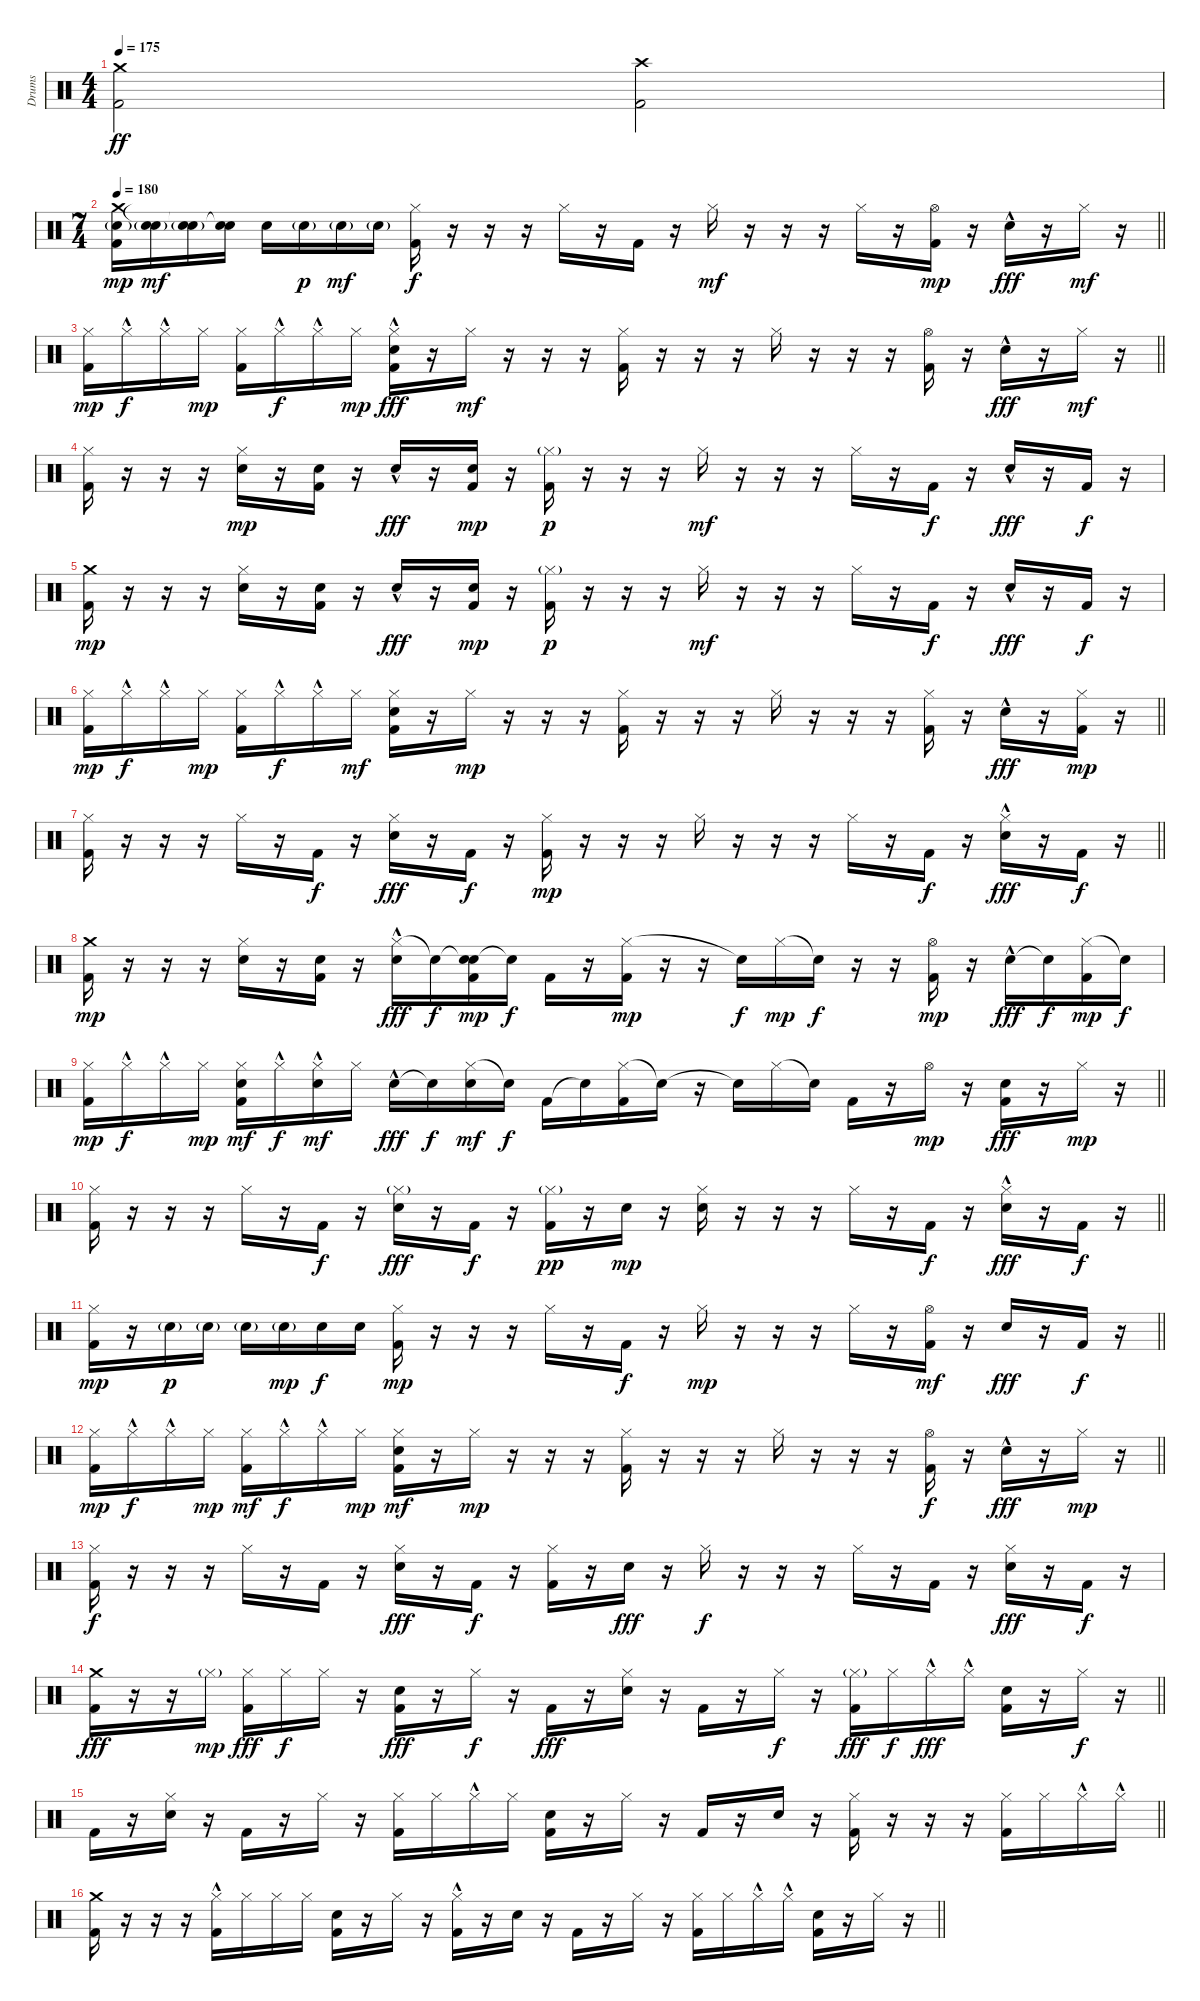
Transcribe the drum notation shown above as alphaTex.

\track ("Drums" "Drums") {instrument percussion}
\staff {score}
\articulation defaults
\ts (4 4)
\tempo 175
\clef neutral
\ks c
("Crash medium (hit)" "Kick (hit) 2").2{dy ff} ("Crash high (hit)" "Kick (hit) 2").2 |
\ts (7 4)
\tempo 180
\barLineRight lightlight
("Crash medium (hit)" "Electric Snare (hit)"{g} "Kick (hit) 2").16{dy mp} ("Snare (hit)"{t} "Electric Snare (hit)"{g}).16{dy mf} ("Snare (hit)"{t} "Electric Snare (hit)"{g}).16 ("Snare (hit)"{t} "Electric Snare (hit)").16 "Electric Snare (hit)".16 "Electric Snare (hit)"{g}.16{dy p} "Electric Snare (hit)"{g}.16{dy mf} "Electric Snare (hit)"{g}.16 ("Hi-Hat (closed)" "Kick (hit) 2").16{dy f} r.16 r.16 r.16 "Hi-Hat (closed)".16 r.16 "Kick (hit) 2".16 r.16 "Hi-Hat (closed)".16{dy mf} r.16 r.16 r.16 "Hi-Hat (closed)".16 r.16 ("Hi-Hat (open)" "Kick (hit) 2").16{dy mp} r.16 "Electric Snare (hit)"{hac}.16{dy fff} r.16 "Hi-Hat (closed)".16{dy mf} r.16 |
\barLineRight lightlight
("Hi-Hat (closed)" "Kick (hit) 2").16{dy mp} "Hi-Hat (closed)"{hac}.16{dy f} "Hi-Hat (closed)"{hac}.16 "Hi-Hat (closed)".16{dy mp} ("Hi-Hat (closed)" "Kick (hit) 2").16 "Hi-Hat (closed)"{hac}.16{dy f} "Hi-Hat (closed)"{hac}.16 "Hi-Hat (closed)".16{dy mp} ("Hi-Hat (closed)" "Electric Snare (hit)"{hac} "Kick (hit) 2").16{dy fff} r.16 "Hi-Hat (closed)".16{dy mf} r.16 r.16 r.16 ("Hi-Hat (closed)" "Kick (hit) 2").16 r.16 r.16 r.16 "Hi-Hat (closed)".16 r.16 r.16 r.16 ("Hi-Hat (open)" "Kick (hit) 2").16 r.16 "Electric Snare (hit)"{hac}.16{dy fff} r.16 "Hi-Hat (closed)".16{dy mf} r.16 |
("Hi-Hat (closed)" "Kick (hit) 2").16 r.16 r.16 r.16 ("Hi-Hat (closed)" "Electric Snare (hit)").16{dy mp} r.16 ("Electric Snare (hit)" "Kick (hit) 2").16 r.16 "Electric Snare (hit)"{hac}.16{dy fff} r.16 ("Electric Snare (hit)" "Kick (hit) 2").16{dy mp} r.16 ("Hi-Hat (closed)"{g} "Kick (hit) 2").16{dy p} r.16 r.16 r.16 "Hi-Hat (closed)".16{dy mf} r.16 r.16 r.16 "Hi-Hat (closed)".16 r.16 "Kick (hit) 2".16{dy f} r.16 "Electric Snare (hit)"{hac}.16{dy fff} r.16 "Kick (hit) 2".16{dy f} r.16 |
("Crash medium (hit)" "Kick (hit) 2").16{dy mp} r.16 r.16 r.16 ("Hi-Hat (closed)" "Electric Snare (hit)").16 r.16 ("Electric Snare (hit)" "Kick (hit) 2").16 r.16 "Electric Snare (hit)"{hac}.16{dy fff} r.16 ("Electric Snare (hit)" "Kick (hit) 2").16{dy mp} r.16 ("Hi-Hat (closed)"{g} "Kick (hit) 2").16{dy p} r.16 r.16 r.16 "Hi-Hat (closed)".16{dy mf} r.16 r.16 r.16 "Hi-Hat (closed)".16 r.16 "Kick (hit) 2".16{dy f} r.16 "Electric Snare (hit)"{hac}.16{dy fff} r.16 "Kick (hit) 2".16{dy f} r.16 |
\barLineRight lightlight
("Hi-Hat (closed)" "Kick (hit) 2").16{dy mp} "Hi-Hat (closed)"{hac}.16{dy f} "Hi-Hat (closed)"{hac}.16 "Hi-Hat (closed)".16{dy mp} ("Hi-Hat (closed)" "Kick (hit) 2").16 "Hi-Hat (closed)"{hac}.16{dy f} "Hi-Hat (closed)"{hac}.16 "Hi-Hat (closed)".16{dy mf} ("Hi-Hat (closed)" "Electric Snare (hit)" "Kick (hit) 2").16 r.16 "Hi-Hat (closed)".16{dy mp} r.16 r.16 r.16 ("Hi-Hat (closed)" "Kick (hit) 2").16 r.16 r.16 r.16 "Hi-Hat (closed)".16 r.16 r.16 r.16 ("Hi-Hat (closed)" "Kick (hit) 2").16 r.16 "Electric Snare (hit)"{hac}.16{dy fff} r.16 ("Hi-Hat (closed)" "Kick (hit) 2").16{dy mp} r.16 |
\barLineRight lightlight
("Hi-Hat (closed)" "Kick (hit) 2").16 r.16 r.16 r.16 "Hi-Hat (closed)".16 r.16 "Kick (hit) 2".16{dy f} r.16 ("Hi-Hat (closed)" "Electric Snare (hit)").16{dy fff} r.16 "Kick (hit) 2".16{dy f} r.16 ("Hi-Hat (closed)" "Kick (hit) 2").16{dy mp} r.16 r.16 r.16 "Hi-Hat (closed)".16 r.16 r.16 r.16 "Hi-Hat (closed)".16 r.16 "Kick (hit) 2".16{dy f} r.16 ("Hi-Hat (closed)" "Electric Snare (hit)"{hac}).16{dy fff} r.16 "Kick (hit) 2".16{dy f} r.16 |
("Crash medium (hit)" "Kick (hit) 2").16{dy mp} r.16 r.16 r.16 ("Hi-Hat (closed)" "Electric Snare (hit)").16 r.16 ("Electric Snare (hit)" "Kick (hit) 2").16 r.16 ("Hi-Hat (closed)" "Electric Snare (hit)"{hac}).16{dy fff} "Snare (hit)"{t}.16{dy f} ("Snare (hit)"{t} "Electric Snare (hit)" "Kick (hit) 2").16{dy mp} "Snare (hit)"{t}.16{dy f} "Kick (hit) 2".16 r.16 ("Hi-Hat (closed)" "Kick (hit) 2").16{dy mp} r.16 r.16 "Snare (hit)"{t}.16{dy f} "Hi-Hat (closed)".16{dy mp} "Snare (hit)"{t}.16{dy f} r.16 r.16 ("Hi-Hat (open)" "Kick (hit) 2").16{dy mp} r.16 "Electric Snare (hit)"{hac}.16{dy fff} "Snare (hit)"{t}.16{dy f} ("Hi-Hat (closed)" "Kick (hit) 2").16{dy mp} "Snare (hit)"{t}.16{dy f} |
\barLineRight lightlight
("Hi-Hat (closed)" "Kick (hit) 2").16{dy mp} "Hi-Hat (closed)"{hac}.16{dy f} "Hi-Hat (closed)"{hac}.16 "Hi-Hat (closed)".16{dy mp} ("Hi-Hat (closed)" "Electric Snare (hit)" "Kick (hit) 2").16{dy mf} "Hi-Hat (closed)"{hac}.16{dy f} ("Hi-Hat (closed)"{hac} "Electric Snare (hit)").16{dy mf} "Hi-Hat (closed)".16 "Electric Snare (hit)"{hac}.16{dy fff} "Snare (hit)"{t}.16{dy f} ("Hi-Hat (closed)" "Electric Snare (hit)").16{dy mf} "Snare (hit)"{t}.16{dy f} "Kick (hit) 2".16 "Snare (hit)"{t}.16 ("Hi-Hat (closed)" "Kick (hit) 2").16 "Snare (hit)"{t}.16 r.16 "Snare (hit)"{t}.16 "Hi-Hat (closed)".16 "Snare (hit)"{t}.16 "Kick (hit) 2".16 r.16 "Hi-Hat (open)".16{dy mp} r.16 ("Electric Snare (hit)" "Kick (hit) 2").16{dy fff} r.16 "Hi-Hat (closed)".16{dy mp} r.16 |
\barLineRight lightlight
("Hi-Hat (closed)" "Kick (hit) 2").16 r.16 r.16 r.16 "Hi-Hat (closed)".16 r.16 "Kick (hit) 2".16{dy f} r.16 ("Hi-Hat (closed)"{g} "Electric Snare (hit)").16{dy fff} r.16 "Kick (hit) 2".16{dy f} r.16 ("Hi-Hat (closed)"{g} "Kick (hit) 2").16{dy pp} r.16 "Electric Snare (hit)".16{dy mp} r.16 ("Hi-Hat (closed)" "Electric Snare (hit)").16 r.16 r.16 r.16 "Hi-Hat (closed)".16 r.16 "Kick (hit) 2".16{dy f} r.16 ("Hi-Hat (closed)" "Electric Snare (hit)"{hac}).16{dy fff} r.16 "Kick (hit) 2".16{dy f} r.16 |
\barLineRight lightlight
("Hi-Hat (closed)" "Kick (hit) 2").16{dy mp} r.16 "Electric Snare (hit)"{g}.16{dy p} "Electric Snare (hit)"{g}.16 "Electric Snare (hit)"{g}.16 "Electric Snare (hit)"{g}.16{dy mp} "Electric Snare (hit)".16{dy f} "Electric Snare (hit)".16 ("Hi-Hat (closed)" "Kick (hit) 2").16{dy mp} r.16 r.16 r.16 "Hi-Hat (closed)".16 r.16 "Kick (hit) 2".16{dy f} r.16 "Hi-Hat (closed)".16{dy mp} r.16 r.16 r.16 "Hi-Hat (closed)".16 r.16 ("Hi-Hat (open)" "Kick (hit) 2").16{dy mf} r.16 "Electric Snare (hit)".16{dy fff} r.16 "Kick (hit) 2".16{dy f} r.16 |
\barLineRight lightlight
("Hi-Hat (closed)" "Kick (hit) 2").16{dy mp} "Hi-Hat (closed)"{hac}.16{dy f} "Hi-Hat (closed)"{hac}.16 "Hi-Hat (closed)".16{dy mp} ("Hi-Hat (closed)" "Kick (hit) 2").16{dy mf} "Hi-Hat (closed)"{hac}.16{dy f} "Hi-Hat (closed)"{hac}.16 "Hi-Hat (closed)".16{dy mp} ("Hi-Hat (closed)" "Electric Snare (hit)" "Kick (hit) 2").16{dy mf} r.16 "Hi-Hat (closed)".16{dy mp} r.16 r.16 r.16 ("Hi-Hat (closed)" "Kick (hit) 2").16 r.16 r.16 r.16 "Hi-Hat (closed)".16 r.16 r.16 r.16 ("Hi-Hat (open)" "Kick (hit) 2").16{dy f} r.16 "Electric Snare (hit)"{hac}.16{dy fff} r.16 "Hi-Hat (closed)".16{dy mp} r.16 |
("Hi-Hat (closed)" "Kick (hit) 2").16{dy f} r.16 r.16 r.16 "Hi-Hat (closed)".16 r.16 "Kick (hit) 2".16 r.16 ("Hi-Hat (closed)" "Electric Snare (hit)").16{dy fff} r.16 "Kick (hit) 2".16{dy f} r.16 ("Hi-Hat (closed)" "Kick (hit) 2").16 r.16 "Electric Snare (hit)".16{dy fff} r.16 "Hi-Hat (closed)".16{dy f} r.16 r.16 r.16 "Hi-Hat (closed)".16 r.16 "Kick (hit) 2".16 r.16 ("Hi-Hat (closed)" "Electric Snare (hit)").16{dy fff} r.16 "Kick (hit) 2".16{dy f} r.16 |
\barLineRight lightlight
("Crash medium (hit)" "Kick (hit) 2").16{dy fff} r.16 r.16 "Hi-Hat (closed)"{g}.16{dy mp} ("Hi-Hat (closed)" "Kick (hit) 2").16{dy fff} "Hi-Hat (closed)".16{dy f} "Hi-Hat (closed)".16 r.16 ("Electric Snare (hit)" "Kick (hit) 2").16{dy fff} r.16 "Hi-Hat (closed)".16{dy f} r.16 "Kick (hit) 2".16{dy fff} r.16 ("Hi-Hat (closed)" "Electric Snare (hit)").16 r.16 "Kick (hit) 2".16 r.16 "Hi-Hat (closed)".16{dy f} r.16 ("Hi-Hat (closed)"{g} "Kick (hit) 2").16{dy fff} "Hi-Hat (closed)".16{dy f} "Hi-Hat (closed)"{hac}.16{dy fff} "Hi-Hat (closed)"{hac}.16 ("Electric Snare (hit)" "Kick (hit) 2").16 r.16 "Hi-Hat (closed)".16{dy f} r.16 |
\barLineRight lightlight "Kick (hit) 2".16
r.16 ("Hi-Hat (closed)" "Electric Snare (hit)").16 r.16 "Kick (hit) 2".16 r.16 "Hi-Hat (closed)".16 r.16 ("Hi-Hat (closed)" "Kick (hit) 2").16 "Hi-Hat (closed)".16 "Hi-Hat (closed)"{hac}.16 "Hi-Hat (closed)".16 ("Electric Snare (hit)" "Kick (hit) 2").16 r.16 "Hi-Hat (closed)".16 r.16 "Kick (hit) 2".16 r.16 "Electric Snare (hit)".16 r.16 ("Hi-Hat (closed)" "Kick (hit) 2").16 r.16 r.16 r.16 ("Hi-Hat (closed)" "Kick (hit) 2").16 "Hi-Hat (closed)".16 "Hi-Hat (closed)"{hac}.16 "Hi-Hat (closed)"{hac}.16 |
\barLineRight lightlight
("Crash medium (hit)" "Kick (hit) 2").16 r.16 r.16 r.16 ("Hi-Hat (closed)"{hac} "Kick (hit) 2").16 "Hi-Hat (closed)".16 "Hi-Hat (closed)".16 "Hi-Hat (closed)".16 ("Electric Snare (hit)" "Kick (hit) 2").16 r.16 "Hi-Hat (closed)".16 r.16 ("Hi-Hat (closed)"{hac} "Kick (hit) 2").16 r.16 "Electric Snare (hit)".16 r.16 "Kick (hit) 2".16 r.16 "Hi-Hat (closed)".16 r.16 ("Hi-Hat (closed)" "Kick (hit) 2").16 "Hi-Hat (closed)".16 "Hi-Hat (closed)"{hac}.16 "Hi-Hat (closed)"{hac}.16 ("Electric Snare (hit)" "Kick (hit) 2").16 r.16 "Hi-Hat (closed)".16 r.16
